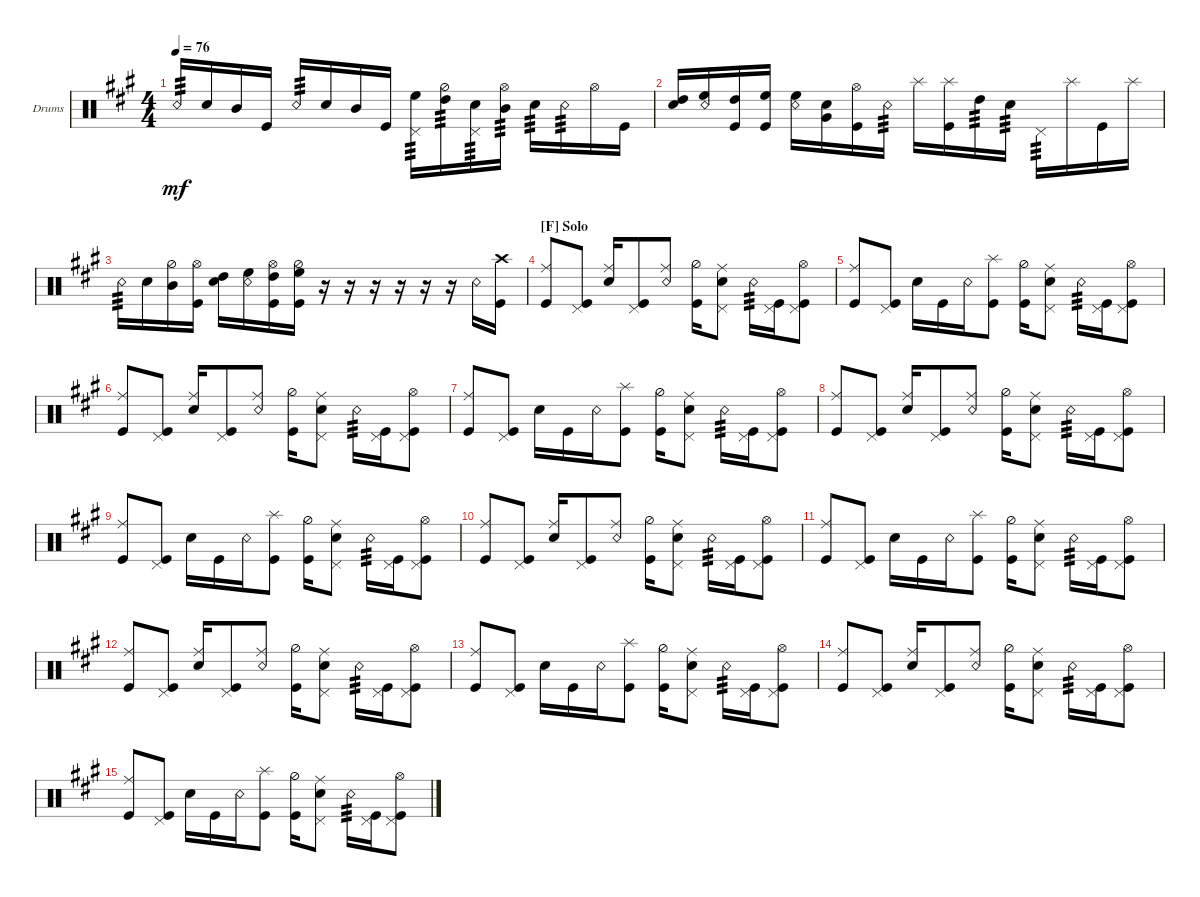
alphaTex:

\defaultSystemsLayout 4
\bracketExtendMode groupsimilarinstruments
\firstSystemTrackNameOrientation horizontal
\otherSystemsTrackNameOrientation horizontal
\track ("Drums" "Drums") {instrument percussion}
\staff {score}
\articulation defaults
\ts (4 4)
\tempo 76
\clef neutral
\ks a "Snare (rim shot)".16{tp 3 dy mf} "Snare (hit) 2".16 "Mid Tom (hit)".16 "Kick (hit)".16 "Snare (rim shot)".16{tp 3} "Snare (hit) 2".16 "Mid Tom (hit)".16 "Kick (hit)".16
("High Floor Tom (hit)" "Pedal Hi-Hat (hit)").16{tp 3} ("High Tom (hit)" "Hi-Hat (half)").16{tp 3} ("Snare (hit) 2" "Pedal Hi-Hat (hit)").16{tp 3} ("Mid Tom (hit)" "Hi-Hat (open)").16{tp 3} "Snare (hit) 2".16{tp 3} "Snare (rim shot)".16{tp 3} "Hi-Hat (open)".16 "Kick (hit)".16 |
("Snare (hit) 2" "High Tom (hit)").16 ("Snare (rim shot)" "High Floor Tom (hit)").16 ("Kick (hit)" "High Tom (hit)").16 ("Kick (hit)" "High Floor Tom (hit)").16 ("Snare (rim shot)" "High Floor Tom (hit)").16 ("Snare (hit) 2" "Very Low Tom (hit)").16 ("Kick (hit)" "Hi-Hat (open)").16 "Snare (rim shot)".16{tp 3} "Splash (hit)".16 ("Splash (hit)" "Kick (hit)").16 "High Tom (hit)".16{tp 3} "Snare (hit) 2".16{tp 3} "Pedal Hi-Hat (hit)".16{tp 3} "Splash (hit)".16 "Kick (hit)".16 "Splash (hit)".16 |
"Snare (rim shot)".16{tp 3} "Snare (hit) 2".16 ("Mid Tom (hit)" "Hi-Hat (half)").16 ("Kick (hit)" "Hi-Hat (open)").16 ("Snare (hit) 2" "High Tom (hit)").16 ("Snare (rim shot)" "High Floor Tom (hit)").16 ("Kick (hit)" "High Tom (hit)" "Hi-Hat (open)").16 ("Kick (hit)" "High Floor Tom (hit)" "Hi-Hat (half)").16 r.16 r.16 r.16 r.16 r.16 r.16 "Snare (rim shot)".16 ("Kick (hit)" "Crash high (hit)").16 |
\section ("F" "Solo")
("Kick (hit)" "Ride (middle)").8 ("Kick (hit)" "Pedal Hi-Hat (hit)").8 ("Snare (hit) 2" "Ride (middle)").16 ("Kick (hit)" "Pedal Hi-Hat (hit)").8 ("Snare (rim shot)" "Ride (middle)").8 ("Kick (hit)" "Hi-Hat (half)").16 ("Snare (hit) 2" "Ride (middle)" "Pedal Hi-Hat (hit)").8 "Snare (rim shot)".16{tp 3} ("Kick (hit)" "Pedal Hi-Hat (hit)").16 ("Kick (hit)" "Pedal Hi-Hat (hit)" "Hi-Hat (open)").8 |
("Kick (hit)" "Ride (middle)").8 ("Kick (hit)" "Pedal Hi-Hat (hit)").8 "Snare (hit) 2".16 "Kick (hit)".16 "Snare (rim shot)".16 ("Splash (hit)" "Kick (hit)").8 ("Kick (hit)" "Hi-Hat (half)").16 ("Snare (hit) 2" "Ride (middle)" "Pedal Hi-Hat (hit)").8 "Snare (rim shot)".16{tp 3} ("Kick (hit)" "Pedal Hi-Hat (hit)").16 ("Kick (hit)" "Pedal Hi-Hat (hit)" "Hi-Hat (open)").8 |
("Kick (hit)" "Ride (middle)").8 ("Kick (hit)" "Pedal Hi-Hat (hit)").8 ("Snare (hit) 2" "Ride (middle)").16 ("Kick (hit)" "Pedal Hi-Hat (hit)").8 ("Snare (rim shot)" "Ride (middle)").8 ("Kick (hit)" "Hi-Hat (half)").16 ("Snare (hit) 2" "Ride (middle)" "Pedal Hi-Hat (hit)").8 "Snare (rim shot)".16{tp 3} ("Kick (hit)" "Pedal Hi-Hat (hit)").16 ("Kick (hit)" "Pedal Hi-Hat (hit)" "Hi-Hat (open)").8 |
("Kick (hit)" "Ride (middle)").8 ("Kick (hit)" "Pedal Hi-Hat (hit)").8 "Snare (hit) 2".16 "Kick (hit)".16 "Snare (rim shot)".16 ("Splash (hit)" "Kick (hit)").8 ("Kick (hit)" "Hi-Hat (half)").16 ("Snare (hit) 2" "Ride (middle)" "Pedal Hi-Hat (hit)").8 "Snare (rim shot)".16{tp 3} ("Kick (hit)" "Pedal Hi-Hat (hit)").16 ("Kick (hit)" "Pedal Hi-Hat (hit)" "Hi-Hat (open)").8 |
("Kick (hit)" "Ride (middle)").8 ("Kick (hit)" "Pedal Hi-Hat (hit)").8 ("Snare (hit) 2" "Ride (middle)").16 ("Kick (hit)" "Pedal Hi-Hat (hit)").8 ("Snare (rim shot)" "Ride (middle)").8 ("Kick (hit)" "Hi-Hat (half)").16 ("Snare (hit) 2" "Ride (middle)" "Pedal Hi-Hat (hit)").8 "Snare (rim shot)".16{tp 3} ("Kick (hit)" "Pedal Hi-Hat (hit)").16 ("Kick (hit)" "Pedal Hi-Hat (hit)" "Hi-Hat (open)").8 |
("Kick (hit)" "Ride (middle)").8 ("Kick (hit)" "Pedal Hi-Hat (hit)").8 "Snare (hit) 2".16 "Kick (hit)".16 "Snare (rim shot)".16 ("Splash (hit)" "Kick (hit)").8 ("Kick (hit)" "Hi-Hat (half)").16 ("Snare (hit) 2" "Ride (middle)" "Pedal Hi-Hat (hit)").8 "Snare (rim shot)".16{tp 3} ("Kick (hit)" "Pedal Hi-Hat (hit)").16 ("Kick (hit)" "Pedal Hi-Hat (hit)" "Hi-Hat (open)").8 |
("Kick (hit)" "Ride (middle)").8 ("Kick (hit)" "Pedal Hi-Hat (hit)").8 ("Snare (hit) 2" "Ride (middle)").16 ("Kick (hit)" "Pedal Hi-Hat (hit)").8 ("Snare (rim shot)" "Ride (middle)").8 ("Kick (hit)" "Hi-Hat (half)").16 ("Snare (hit) 2" "Ride (middle)" "Pedal Hi-Hat (hit)").8 "Snare (rim shot)".16{tp 3} ("Kick (hit)" "Pedal Hi-Hat (hit)").16 ("Kick (hit)" "Pedal Hi-Hat (hit)" "Hi-Hat (open)").8 |
("Kick (hit)" "Ride (middle)").8 ("Kick (hit)" "Pedal Hi-Hat (hit)").8 "Snare (hit) 2".16 "Kick (hit)".16 "Snare (rim shot)".16 ("Splash (hit)" "Kick (hit)").8 ("Kick (hit)" "Hi-Hat (half)").16 ("Snare (hit) 2" "Ride (middle)" "Pedal Hi-Hat (hit)").8 "Snare (rim shot)".16{tp 3} ("Kick (hit)" "Pedal Hi-Hat (hit)").16 ("Kick (hit)" "Pedal Hi-Hat (hit)" "Hi-Hat (open)").8 |
("Kick (hit)" "Ride (middle)").8 ("Kick (hit)" "Pedal Hi-Hat (hit)").8 ("Snare (hit) 2" "Ride (middle)").16 ("Kick (hit)" "Pedal Hi-Hat (hit)").8 ("Snare (rim shot)" "Ride (middle)").8 ("Kick (hit)" "Hi-Hat (half)").16 ("Snare (hit) 2" "Ride (middle)" "Pedal Hi-Hat (hit)").8 "Snare (rim shot)".16{tp 3} ("Kick (hit)" "Pedal Hi-Hat (hit)").16 ("Kick (hit)" "Pedal Hi-Hat (hit)" "Hi-Hat (open)").8 |
("Kick (hit)" "Ride (middle)").8 ("Kick (hit)" "Pedal Hi-Hat (hit)").8 "Snare (hit) 2".16 "Kick (hit)".16 "Snare (rim shot)".16 ("Splash (hit)" "Kick (hit)").8 ("Kick (hit)" "Hi-Hat (half)").16 ("Snare (hit) 2" "Ride (middle)" "Pedal Hi-Hat (hit)").8 "Snare (rim shot)".16{tp 3} ("Kick (hit)" "Pedal Hi-Hat (hit)").16 ("Kick (hit)" "Pedal Hi-Hat (hit)" "Hi-Hat (open)").8 |
("Kick (hit)" "Ride (middle)").8 ("Kick (hit)" "Pedal Hi-Hat (hit)").8 ("Snare (hit) 2" "Ride (middle)").16 ("Kick (hit)" "Pedal Hi-Hat (hit)").8 ("Snare (rim shot)" "Ride (middle)").8 ("Kick (hit)" "Hi-Hat (half)").16 ("Snare (hit) 2" "Ride (middle)" "Pedal Hi-Hat (hit)").8 "Snare (rim shot)".16{tp 3} ("Kick (hit)" "Pedal Hi-Hat (hit)").16 ("Kick (hit)" "Pedal Hi-Hat (hit)" "Hi-Hat (open)").8 |
("Kick (hit)" "Ride (middle)").8 ("Kick (hit)" "Pedal Hi-Hat (hit)").8 "Snare (hit) 2".16 "Kick (hit)".16 "Snare (rim shot)".16 ("Splash (hit)" "Kick (hit)").8 ("Kick (hit)" "Hi-Hat (half)").16 ("Snare (hit) 2" "Ride (middle)" "Pedal Hi-Hat (hit)").8 "Snare (rim shot)".16{tp 3} ("Kick (hit)" "Pedal Hi-Hat (hit)").16 ("Kick (hit)" "Pedal Hi-Hat (hit)" "Hi-Hat (open)").8
